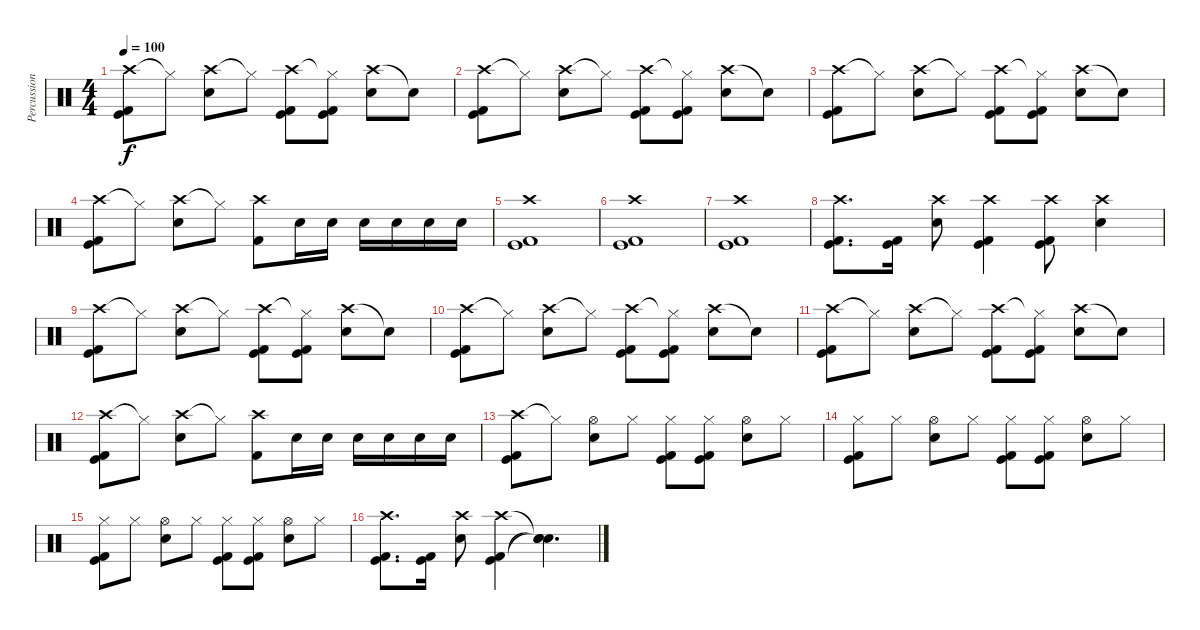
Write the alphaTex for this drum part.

\track ("Percussions" "Percussion") {instrument percussion}
\staff {score}
\articulation defaults
\ts (4 4)
\tempo 100
\clef neutral
\ks c
("Crash high (hit)" "Kick (hit)" "Kick (hit) 2").8{dy f} "Hi-Hat (closed)"{t}.8 ("Crash high (hit)" "Snare (hit) 2").8 "Hi-Hat (closed)"{t}.8 ("Crash high (hit)" "Kick (hit)" "Kick (hit) 2").8 ("Hi-Hat (closed)"{t} "Kick (hit)" "Kick (hit) 2").8 ("Crash high (hit)" "Snare (hit) 2").8 "Snare (hit)"{t}.8 |
("Crash high (hit)" "Kick (hit)" "Kick (hit) 2").8 "Hi-Hat (closed)"{t}.8 ("Crash high (hit)" "Snare (hit) 2").8 "Hi-Hat (closed)"{t}.8 ("Crash high (hit)" "Kick (hit)" "Kick (hit) 2").8 ("Hi-Hat (closed)"{t} "Kick (hit)" "Kick (hit) 2").8 ("Crash high (hit)" "Snare (hit) 2").8 "Snare (hit)"{t}.8 |
("Crash high (hit)" "Kick (hit)" "Kick (hit) 2").8 "Hi-Hat (closed)"{t}.8 ("Crash high (hit)" "Snare (hit) 2").8 "Hi-Hat (closed)"{t}.8 ("Crash high (hit)" "Kick (hit)" "Kick (hit) 2").8 ("Hi-Hat (closed)"{t} "Kick (hit)" "Kick (hit) 2").8 ("Crash high (hit)" "Snare (hit) 2").8 "Snare (hit)"{t}.8 |
("Crash high (hit)" "Kick (hit)" "Kick (hit) 2").8 "Hi-Hat (closed)"{t}.8 ("Crash high (hit)" "Snare (hit) 2").8 "Hi-Hat (closed)"{t}.8 ("Crash high (hit)" "Kick (hit) 2").8 "Snare (hit) 2".16 "Snare (hit) 2".16 "Snare (hit) 2".16 "Snare (hit) 2".16 "Snare (hit) 2".16 "Snare (hit) 2".16 |
("Crash high (hit)" "Kick (hit)" "Kick (hit) 2").1 |
("Crash high (hit)" "Kick (hit)" "Kick (hit) 2").1 |
("Crash high (hit)" "Kick (hit)" "Kick (hit) 2").1 |
("Crash high (hit)" "Kick (hit)" "Kick (hit) 2").8{d} ("Kick (hit)" "Kick (hit) 2").16 ("Crash high (hit)" "Snare (hit) 2").8 ("Crash high (hit)" "Kick (hit)" "Kick (hit) 2").4 ("Crash high (hit)" "Kick (hit)" "Kick (hit) 2").8 ("Crash high (hit)" "Snare (hit) 2").4 |
("Crash high (hit)" "Kick (hit)" "Kick (hit) 2").8 "Hi-Hat (closed)"{t}.8 ("Crash high (hit)" "Snare (hit) 2").8 "Hi-Hat (closed)"{t}.8 ("Crash high (hit)" "Kick (hit)" "Kick (hit) 2").8 ("Hi-Hat (closed)"{t} "Kick (hit)" "Kick (hit) 2").8 ("Crash high (hit)" "Snare (hit) 2").8 "Snare (hit)"{t}.8 |
("Crash high (hit)" "Kick (hit)" "Kick (hit) 2").8 "Hi-Hat (closed)"{t}.8 ("Crash high (hit)" "Snare (hit) 2").8 "Hi-Hat (closed)"{t}.8 ("Crash high (hit)" "Kick (hit)" "Kick (hit) 2").8 ("Hi-Hat (closed)"{t} "Kick (hit)" "Kick (hit) 2").8 ("Crash high (hit)" "Snare (hit) 2").8 "Snare (hit)"{t}.8 |
("Crash high (hit)" "Kick (hit)" "Kick (hit) 2").8 "Hi-Hat (closed)"{t}.8 ("Crash high (hit)" "Snare (hit) 2").8 "Hi-Hat (closed)"{t}.8 ("Crash high (hit)" "Kick (hit)" "Kick (hit) 2").8 ("Hi-Hat (closed)"{t} "Kick (hit)" "Kick (hit) 2").8 ("Crash high (hit)" "Snare (hit) 2").8 "Snare (hit)"{t}.8 |
("Crash high (hit)" "Kick (hit)" "Kick (hit) 2").8 "Hi-Hat (closed)"{t}.8 ("Crash high (hit)" "Snare (hit) 2").8 "Hi-Hat (closed)"{t}.8 ("Crash high (hit)" "Kick (hit) 2").8 "Snare (hit) 2".16 "Snare (hit) 2".16 "Snare (hit) 2".16 "Snare (hit) 2".16 "Snare (hit) 2".16 "Snare (hit) 2".16 |
("Crash high (hit)" "Kick (hit)" "Kick (hit) 2").8 "Hi-Hat (closed)"{t}.8 ("Hi-Hat (open)" "Snare (hit) 2").8 "Hi-Hat (closed)".8 ("Hi-Hat (closed)" "Kick (hit)" "Kick (hit) 2").8 ("Hi-Hat (closed)" "Kick (hit)" "Kick (hit) 2").8 ("Hi-Hat (open)" "Snare (hit) 2").8 "Hi-Hat (closed)".8 |
("Hi-Hat (closed)" "Kick (hit)" "Kick (hit) 2").8 "Hi-Hat (closed)".8 ("Hi-Hat (open)" "Snare (hit) 2").8 "Hi-Hat (closed)".8 ("Hi-Hat (closed)" "Kick (hit)" "Kick (hit) 2").8 ("Hi-Hat (closed)" "Kick (hit)" "Kick (hit) 2").8 ("Hi-Hat (open)" "Snare (hit) 2").8 "Hi-Hat (closed)".8 |
("Hi-Hat (closed)" "Kick (hit)" "Kick (hit) 2").8 "Hi-Hat (closed)".8 ("Hi-Hat (open)" "Snare (hit) 2").8 "Hi-Hat (closed)".8 ("Hi-Hat (closed)" "Kick (hit)" "Kick (hit) 2").8 ("Hi-Hat (closed)" "Kick (hit)" "Kick (hit) 2").8 ("Hi-Hat (open)" "Snare (hit) 2").8 "Hi-Hat (closed)".8 |
("Crash high (hit)" "Kick (hit)" "Kick (hit) 2").8{d} ("Kick (hit)" "Kick (hit) 2").16 ("Crash high (hit)" "Snare (hit) 2").8 ("Crash high (hit)" "Kick (hit)" "Kick (hit) 2").4 ("Snare (hit)"{t} "Snare (hit)"{t} "Snare (hit)"{t}).4{d}
